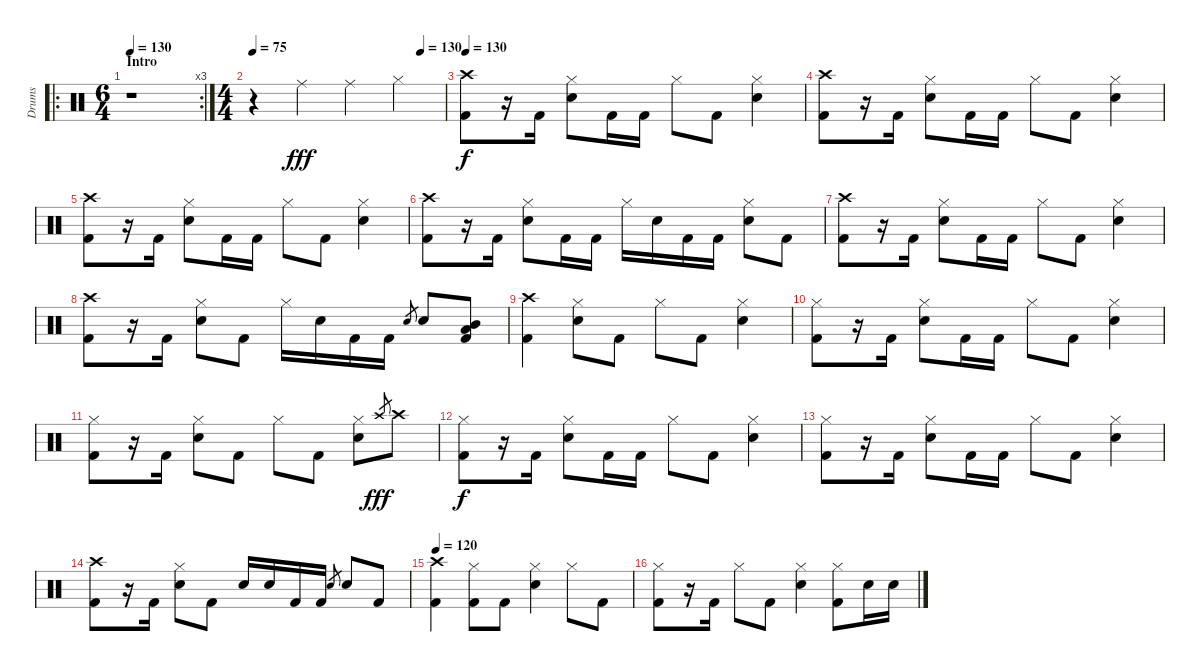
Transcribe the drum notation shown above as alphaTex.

\track ("Drums" "Drums") {instrument percussion}
\staff {score}
\articulation defaults
\ro
\rc 3
\ts (6 4)
\section ("" "Intro")
\tempo 130
\tempo 100
\tempo 130
\clef neutral
\ks c
r.1{dy fff} |
\ts (4 4)
\tempo 75
\tempo (130 0.875)
r.4 "Ride (middle)".4 "Ride (middle)".4 "Hi-Hat (closed)".4 |
\tempo 130
("Crash high (hit)" "Kick (hit) 2").8{dy f} r.16 "Kick (hit) 2".16 ("Hi-Hat (closed)" "Electric Snare (hit)").8 "Kick (hit) 2".16 "Kick (hit) 2".16 "Hi-Hat (closed)".8 "Kick (hit) 2".8 ("Hi-Hat (closed)" "Electric Snare (hit)").4 |
("Crash high (hit)" "Kick (hit) 2").8 r.16 "Kick (hit) 2".16 ("Hi-Hat (closed)" "Electric Snare (hit)").8 "Kick (hit) 2".16 "Kick (hit) 2".16 "Hi-Hat (closed)".8 "Kick (hit) 2".8 ("Hi-Hat (closed)" "Electric Snare (hit)").4 |
("Crash high (hit)" "Kick (hit) 2").8 r.16 "Kick (hit) 2".16 ("Hi-Hat (closed)" "Electric Snare (hit)").8 "Kick (hit) 2".16 "Kick (hit) 2".16 "Hi-Hat (closed)".8 "Kick (hit) 2".8 ("Hi-Hat (closed)" "Electric Snare (hit)").4 |
("Crash high (hit)" "Kick (hit) 2").8 r.16 "Kick (hit) 2".16 ("Hi-Hat (closed)" "Electric Snare (hit)").8 "Kick (hit) 2".16 "Kick (hit) 2".16 "Hi-Hat (closed)".16 "Electric Snare (hit)".16 "Kick (hit) 2".16 "Kick (hit) 2".16 ("Hi-Hat (closed)" "Electric Snare (hit)").8 "Kick (hit) 2".8 |
("Crash high (hit)" "Kick (hit) 2").8 r.16 "Kick (hit) 2".16 ("Hi-Hat (closed)" "Electric Snare (hit)").8 "Kick (hit) 2".16 "Kick (hit) 2".16 "Hi-Hat (closed)".8 "Kick (hit) 2".8 ("Hi-Hat (closed)" "Electric Snare (hit)").4 |
("Crash high (hit)" "Kick (hit) 2").8 r.16 "Kick (hit) 2".16 ("Hi-Hat (closed)" "Electric Snare (hit)").8 "Kick (hit) 2".8 "Hi-Hat (closed)".16 "Electric Snare (hit)".16 "Kick (hit) 2".16 "Kick (hit) 2".16 "Electric Snare (hit)".8{gr} "Electric Snare (hit)".8 ("Mid Tom (hit)" "Low Floor Tom (hit)" "Kick (hit) 2").8 |
("Crash high (hit)" "Kick (hit) 2").4 ("Hi-Hat (closed)" "Electric Snare (hit)").8 "Kick (hit) 2".8 "Hi-Hat (closed)".8 "Kick (hit) 2".8 ("Hi-Hat (closed)" "Electric Snare (hit)").4 |
("Hi-Hat (closed)" "Kick (hit) 2").8 r.16 "Kick (hit) 2".16 ("Hi-Hat (closed)" "Electric Snare (hit)").8 "Kick (hit) 2".16 "Kick (hit) 2".16 "Hi-Hat (closed)".8 "Kick (hit) 2".8 ("Hi-Hat (closed)" "Electric Snare (hit)").4 |
("Hi-Hat (closed)" "Kick (hit) 2").8 r.16 "Kick (hit) 2".16 ("Hi-Hat (closed)" "Electric Snare (hit)").8 "Kick (hit) 2".8 "Hi-Hat (closed)".8 "Kick (hit) 2".8 ("Hi-Hat (closed)" "Electric Snare (hit)").8 "Crash high (hit)".8{gr dy fff} "Crash high (hit)".8 |
("Hi-Hat (closed)" "Kick (hit) 2").8{dy f} r.16 "Kick (hit) 2".16 ("Hi-Hat (closed)" "Electric Snare (hit)").8 "Kick (hit) 2".16 "Kick (hit) 2".16 "Hi-Hat (closed)".8 "Kick (hit) 2".8 ("Hi-Hat (closed)" "Electric Snare (hit)").4 |
("Hi-Hat (closed)" "Kick (hit) 2").8 r.16 "Kick (hit) 2".16 ("Hi-Hat (closed)" "Electric Snare (hit)").8 "Kick (hit) 2".16 "Kick (hit) 2".16 "Hi-Hat (closed)".8 "Kick (hit) 2".8 ("Hi-Hat (closed)" "Electric Snare (hit)").4 |
("Crash high (hit)" "Kick (hit) 2").8 r.16 "Kick (hit) 2".16 ("Hi-Hat (closed)" "Electric Snare (hit)").8 "Kick (hit) 2".8 "Electric Snare (hit)".16 "Electric Snare (hit)".16 "Kick (hit) 2".16 "Kick (hit) 2".16 "Electric Snare (hit)".8{gr} "Electric Snare (hit)".8 "Kick (hit) 2".8 |
\tempo 120
("Crash high (hit)" "Kick (hit) 2").4 ("Hi-Hat (closed)" "Kick (hit) 2").8 "Kick (hit) 2".8 ("Hi-Hat (closed)" "Electric Snare (hit)").4 "Hi-Hat (closed)".8 "Kick (hit) 2".8 |
("Hi-Hat (closed)" "Kick (hit) 2").8 r.16 "Kick (hit) 2".16 "Hi-Hat (closed)".8 "Kick (hit) 2".8 ("Hi-Hat (closed)" "Electric Snare (hit)").4 ("Hi-Hat (closed)" "Kick (hit) 2").8 "Electric Snare (hit)".16 "Electric Snare (hit)".16
